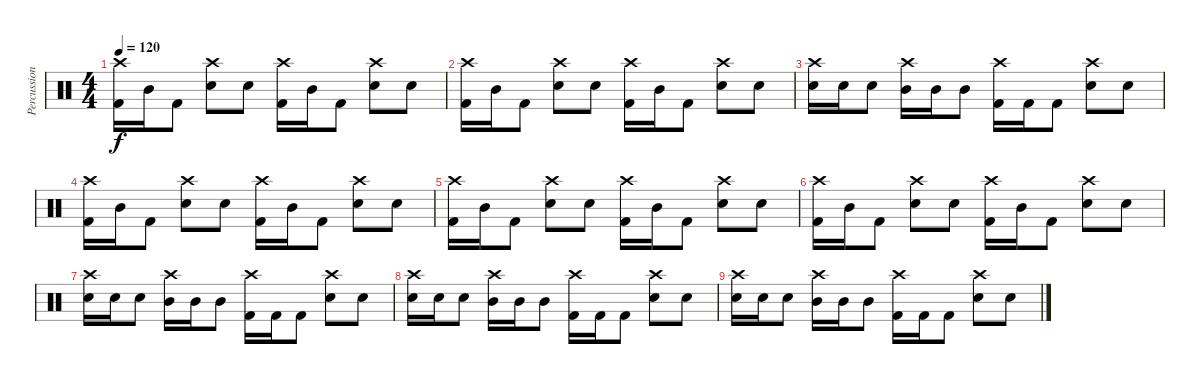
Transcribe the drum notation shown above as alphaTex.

\track ("Percussions" "Percussion") {instrument percussion}
\staff {score}
\articulation defaults
\ts (4 4)
\tempo 120
\clef neutral
\ks c
("Kick (hit) 2" "Crash high (hit)").16{dy f} "Mid Tom (hit)".16 "Kick (hit) 2".8 ("Electric Snare (hit)" "Crash high (hit)").8 "Electric Snare (hit)".8 ("Kick (hit) 2" "Crash high (hit)").16 "Mid Tom (hit)".16 "Kick (hit) 2".8 ("Electric Snare (hit)" "Crash high (hit)").8 "Electric Snare (hit)".8 |
("Kick (hit) 2" "Crash high (hit)").16 "Mid Tom (hit)".16 "Kick (hit) 2".8 ("Electric Snare (hit)" "Crash high (hit)").8 "Electric Snare (hit)".8 ("Kick (hit) 2" "Crash high (hit)").16 "Mid Tom (hit)".16 "Kick (hit) 2".8 ("Electric Snare (hit)" "Crash high (hit)").8 "Electric Snare (hit)".8 |
("Electric Snare (hit)" "Crash high (hit)").16 "Electric Snare (hit)".16 "Electric Snare (hit)".8 ("Mid Tom (hit)" "Crash high (hit)").16 "Mid Tom (hit)".16 "Mid Tom (hit)".8 ("Kick (hit) 2" "Crash high (hit)").16 "Kick (hit) 2".16 "Kick (hit) 2".8 ("Electric Snare (hit)" "Crash high (hit)").8 "Electric Snare (hit)".8 |
("Kick (hit) 2" "Crash high (hit)").16 "Mid Tom (hit)".16 "Kick (hit) 2".8 ("Electric Snare (hit)" "Crash high (hit)").8 "Electric Snare (hit)".8 ("Kick (hit) 2" "Crash high (hit)").16 "Mid Tom (hit)".16 "Kick (hit) 2".8 ("Electric Snare (hit)" "Crash high (hit)").8 "Electric Snare (hit)".8 |
("Kick (hit) 2" "Crash high (hit)").16 "Mid Tom (hit)".16 "Kick (hit) 2".8 ("Electric Snare (hit)" "Crash high (hit)").8 "Electric Snare (hit)".8 ("Kick (hit) 2" "Crash high (hit)").16 "Mid Tom (hit)".16 "Kick (hit) 2".8 ("Electric Snare (hit)" "Crash high (hit)").8 "Electric Snare (hit)".8 |
("Kick (hit) 2" "Crash high (hit)").16 "Mid Tom (hit)".16 "Kick (hit) 2".8 ("Electric Snare (hit)" "Crash high (hit)").8 "Electric Snare (hit)".8 ("Kick (hit) 2" "Crash high (hit)").16 "Mid Tom (hit)".16 "Kick (hit) 2".8 ("Electric Snare (hit)" "Crash high (hit)").8 "Electric Snare (hit)".8 |
("Electric Snare (hit)" "Crash high (hit)").16 "Electric Snare (hit)".16 "Electric Snare (hit)".8 ("Mid Tom (hit)" "Crash high (hit)").16 "Mid Tom (hit)".16 "Mid Tom (hit)".8 ("Kick (hit) 2" "Crash high (hit)").16 "Kick (hit) 2".16 "Kick (hit) 2".8 ("Electric Snare (hit)" "Crash high (hit)").8 "Electric Snare (hit)".8 |
("Electric Snare (hit)" "Crash high (hit)").16 "Electric Snare (hit)".16 "Electric Snare (hit)".8 ("Mid Tom (hit)" "Crash high (hit)").16 "Mid Tom (hit)".16 "Mid Tom (hit)".8 ("Kick (hit) 2" "Crash high (hit)").16 "Kick (hit) 2".16 "Kick (hit) 2".8 ("Electric Snare (hit)" "Crash high (hit)").8 "Electric Snare (hit)".8 |
("Electric Snare (hit)" "Crash high (hit)").16 "Electric Snare (hit)".16 "Electric Snare (hit)".8 ("Mid Tom (hit)" "Crash high (hit)").16 "Mid Tom (hit)".16 "Mid Tom (hit)".8 ("Kick (hit) 2" "Crash high (hit)").16 "Kick (hit) 2".16 "Kick (hit) 2".8 ("Electric Snare (hit)" "Crash high (hit)").8 "Electric Snare (hit)".8
